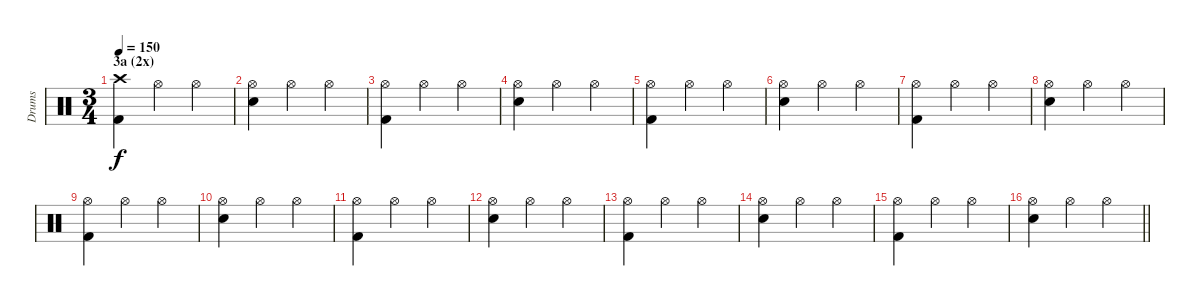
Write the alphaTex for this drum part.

\track ("Drums" "Drums") {instrument percussion}
\staff {score}
\articulation defaults
\ts (3 4)
\section ("" "3a (2x)")
\tempo 150
\clef neutral
\ks c
("Crash high (hit)" "Kick (hit) 2").4{dy f} "Hi-Hat (open)".4 "Hi-Hat (open)".4 |
("Hi-Hat (open)" "Snare (hit) 2").4 "Hi-Hat (open)".4 "Hi-Hat (open)".4 |
("Hi-Hat (open)" "Kick (hit) 2").4 "Hi-Hat (open)".4 "Hi-Hat (open)".4 |
("Hi-Hat (open)" "Snare (hit) 2").4 "Hi-Hat (open)".4 "Hi-Hat (open)".4 |
("Hi-Hat (open)" "Kick (hit) 2").4 "Hi-Hat (open)".4 "Hi-Hat (open)".4 |
("Hi-Hat (open)" "Snare (hit) 2").4 "Hi-Hat (open)".4 "Hi-Hat (open)".4 |
("Hi-Hat (open)" "Kick (hit) 2").4 "Hi-Hat (open)".4 "Hi-Hat (open)".4 |
("Hi-Hat (open)" "Snare (hit) 2").4 "Hi-Hat (open)".4 "Hi-Hat (open)".4 |
("Hi-Hat (open)" "Kick (hit) 2").4 "Hi-Hat (open)".4 "Hi-Hat (open)".4 |
("Hi-Hat (open)" "Snare (hit) 2").4 "Hi-Hat (open)".4 "Hi-Hat (open)".4 |
("Hi-Hat (open)" "Kick (hit) 2").4 "Hi-Hat (open)".4 "Hi-Hat (open)".4 |
("Hi-Hat (open)" "Snare (hit) 2").4 "Hi-Hat (open)".4 "Hi-Hat (open)".4 |
("Hi-Hat (open)" "Kick (hit) 2").4 "Hi-Hat (open)".4 "Hi-Hat (open)".4 |
("Hi-Hat (open)" "Snare (hit) 2").4 "Hi-Hat (open)".4 "Hi-Hat (open)".4 |
("Hi-Hat (open)" "Kick (hit) 2").4 "Hi-Hat (open)".4 "Hi-Hat (open)".4 |
\barLineRight lightlight
("Hi-Hat (open)" "Snare (hit) 2").4 "Hi-Hat (open)".4 "Hi-Hat (open)".4
